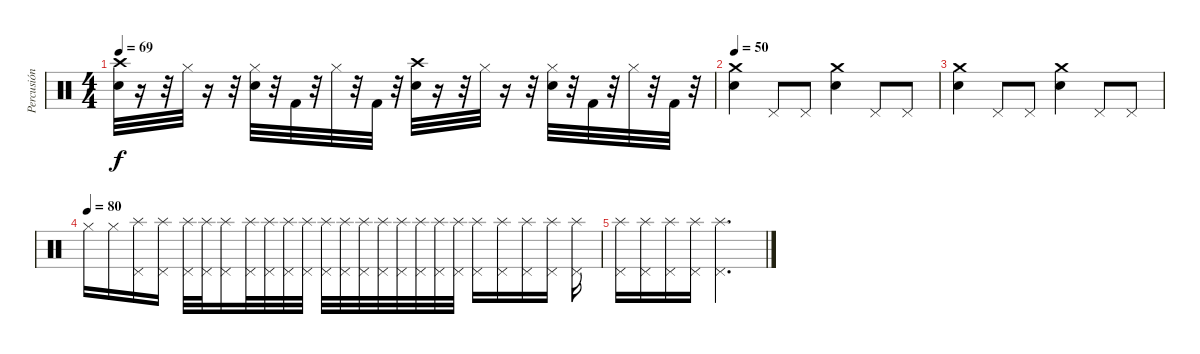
\track ("Percusión" "Percusión") {instrument percussion}
\staff {score}
\articulation defaults
\ts (4 4)
\tempo 69
\clef neutral
\ks c
("Crash high (hit)" "Snare (hit) 2").32{dy f} r.16 r.32 "Hi-Hat (closed)".32 r.16 r.32 ("Snare (hit) 2" "Hi-Hat (closed)").32 r.32 "Kick (hit) 2".32 r.32 "Hi-Hat (closed)".32 r.32 "Kick (hit) 2".32 r.32 ("Crash high (hit)" "Snare (hit) 2").32 r.16 r.32 "Hi-Hat (closed)".32 r.16 r.32 ("Snare (hit) 2" "Hi-Hat (closed)").32 r.32 "Kick (hit) 2".32 r.32 "Hi-Hat (closed)".32 r.32 "Kick (hit) 2".32 r.32 |
\tempo 50
("Crash medium (hit)" "Snare (hit) 2").4 "Pedal Hi-Hat (hit)".8 "Pedal Hi-Hat (hit)".8 ("Crash medium (hit)" "Snare (hit) 2").4 "Pedal Hi-Hat (hit)".8 "Pedal Hi-Hat (hit)".8 |
("Crash medium (hit)" "Snare (hit) 2").4 "Pedal Hi-Hat (hit)".8 "Pedal Hi-Hat (hit)".8 ("Crash medium (hit)" "Snare (hit) 2").4 "Pedal Hi-Hat (hit)".8 "Pedal Hi-Hat (hit)".8 |
\tempo (80)
"Hi-Hat (closed)".16 "Hi-Hat (closed)".16 ("Splash (hit)" "Pedal Hi-Hat (hit)").16 ("Splash (hit)" "Pedal Hi-Hat (hit)").16 ("Splash (hit)" "Pedal Hi-Hat (hit)").32 ("Splash (hit)" "Pedal Hi-Hat (hit)").32 ("Splash (hit)" "Pedal Hi-Hat (hit)").16 ("Splash (hit)" "Pedal Hi-Hat (hit)").32 ("Splash (hit)" "Pedal Hi-Hat (hit)").32 ("Splash (hit)" "Pedal Hi-Hat (hit)").32 ("Splash (hit)" "Pedal Hi-Hat (hit)").32 ("Splash (hit)" "Pedal Hi-Hat (hit)").32 ("Splash (hit)" "Pedal Hi-Hat (hit)").32 ("Splash (hit)" "Pedal Hi-Hat (hit)").32 ("Splash (hit)" "Pedal Hi-Hat (hit)").32 ("Splash (hit)" "Pedal Hi-Hat (hit)").32 ("Splash (hit)" "Pedal Hi-Hat (hit)").32 ("Splash (hit)" "Pedal Hi-Hat (hit)").32 ("Splash (hit)" "Pedal Hi-Hat (hit)").32 ("Splash (hit)" "Pedal Hi-Hat (hit)").16 ("Splash (hit)" "Pedal Hi-Hat (hit)").16 ("Splash (hit)" "Pedal Hi-Hat (hit)").16 ("Splash (hit)" "Pedal Hi-Hat (hit)").16 ("Splash (hit)" "Pedal Hi-Hat (hit)").16 |
("Splash (hit)" "Pedal Hi-Hat (hit)").16 ("Splash (hit)" "Pedal Hi-Hat (hit)").16 ("Splash (hit)" "Pedal Hi-Hat (hit)").16 ("Splash (hit)" "Pedal Hi-Hat (hit)").16 ("Splash (hit)" "Pedal Hi-Hat (hit)").2{d}
